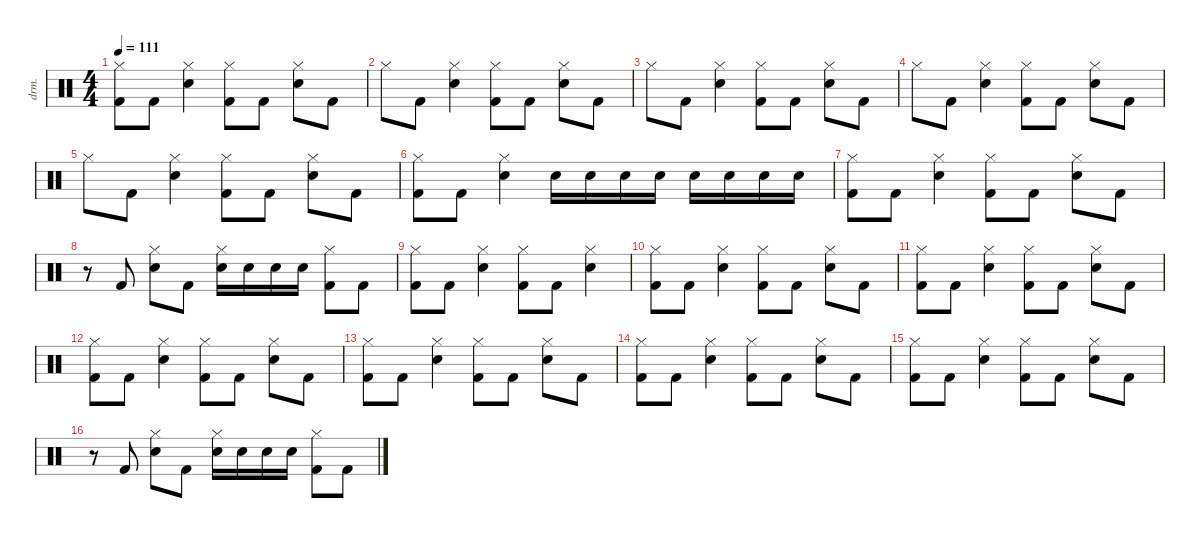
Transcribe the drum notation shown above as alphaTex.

\defaultSystemsLayout 4
\hideDynamics
\bracketExtendMode nobrackets
\otherSystemsTrackNameOrientation horizontal
\track ("Drums" "drm.") {instrument percussion}
\staff {score}
\articulation defaults
\ts (4 4)
\tempo 111
\clef neutral
\ks c
("Kick (hit) 2" "Hi-Hat (closed)").8{dy f} "Kick (hit) 2".8 ("Snare (hit) 2" "Hi-Hat (closed)").4 ("Kick (hit) 2" "Hi-Hat (closed)").8 "Kick (hit) 2".8 ("Snare (hit) 2" "Hi-Hat (closed)").8 "Kick (hit) 2".8 |
"Hi-Hat (closed)".8 "Kick (hit) 2".8 ("Snare (hit) 2" "Hi-Hat (closed)").4 ("Kick (hit) 2" "Hi-Hat (closed)").8 "Kick (hit) 2".8 ("Snare (hit) 2" "Hi-Hat (closed)").8 "Kick (hit) 2".8 |
"Hi-Hat (closed)".8 "Kick (hit) 2".8 ("Snare (hit) 2" "Hi-Hat (closed)").4 ("Kick (hit) 2" "Hi-Hat (closed)").8 "Kick (hit) 2".8 ("Snare (hit) 2" "Hi-Hat (closed)").8 "Kick (hit) 2".8 |
"Hi-Hat (closed)".8 "Kick (hit) 2".8 ("Snare (hit) 2" "Hi-Hat (closed)").4 ("Kick (hit) 2" "Hi-Hat (closed)").8 "Kick (hit) 2".8 ("Snare (hit) 2" "Hi-Hat (closed)").8 "Kick (hit) 2".8 |
"Hi-Hat (closed)".8 "Kick (hit) 2".8 ("Snare (hit) 2" "Hi-Hat (closed)").4 ("Kick (hit) 2" "Hi-Hat (closed)").8 "Kick (hit) 2".8 ("Snare (hit) 2" "Hi-Hat (closed)").8 "Kick (hit) 2".8 |
("Kick (hit) 2" "Hi-Hat (closed)").8 "Kick (hit) 2".8 ("Snare (hit) 2" "Hi-Hat (closed)").4 "Snare (hit) 2".16 "Snare (hit) 2".16 "Snare (hit) 2".16 "Snare (hit) 2".16 "Snare (hit) 2".16 "Snare (hit) 2".16 "Snare (hit) 2".16 "Snare (hit) 2".16 |
("Kick (hit) 2" "Hi-Hat (closed)").8 "Kick (hit) 2".8 ("Snare (hit) 2" "Hi-Hat (closed)").4 ("Kick (hit) 2" "Hi-Hat (closed)").8 "Kick (hit) 2".8 ("Snare (hit) 2" "Hi-Hat (closed)").8 "Kick (hit) 2".8 |
r.8 "Kick (hit) 2".8 ("Snare (hit) 2" "Hi-Hat (closed)").8 "Kick (hit) 2".8 ("Snare (hit) 2" "Hi-Hat (closed)").16 "Snare (hit) 2".16 "Snare (hit) 2".16 "Snare (hit) 2".16 ("Kick (hit) 2" "Hi-Hat (closed)").8 "Kick (hit) 2".8 |
("Kick (hit) 2" "Hi-Hat (closed)").8 "Kick (hit) 2".8 ("Snare (hit) 2" "Hi-Hat (closed)").4 ("Kick (hit) 2" "Hi-Hat (closed)").8 "Kick (hit) 2".8 ("Snare (hit) 2" "Hi-Hat (closed)").4 |
("Kick (hit) 2" "Hi-Hat (closed)").8 "Kick (hit) 2".8 ("Snare (hit) 2" "Hi-Hat (closed)").4 ("Kick (hit) 2" "Hi-Hat (closed)").8 "Kick (hit) 2".8 ("Snare (hit) 2" "Hi-Hat (closed)").8 "Kick (hit) 2".8 |
("Kick (hit) 2" "Hi-Hat (closed)").8 "Kick (hit) 2".8 ("Snare (hit) 2" "Hi-Hat (closed)").4 ("Kick (hit) 2" "Hi-Hat (closed)").8 "Kick (hit) 2".8 ("Snare (hit) 2" "Hi-Hat (closed)").8 "Kick (hit) 2".8 |
("Kick (hit) 2" "Hi-Hat (closed)").8 "Kick (hit) 2".8 ("Snare (hit) 2" "Hi-Hat (closed)").4 ("Kick (hit) 2" "Hi-Hat (closed)").8 "Kick (hit) 2".8 ("Snare (hit) 2" "Hi-Hat (closed)").8 "Kick (hit) 2".8 |
("Kick (hit) 2" "Hi-Hat (closed)").8 "Kick (hit) 2".8 ("Snare (hit) 2" "Hi-Hat (closed)").4 ("Kick (hit) 2" "Hi-Hat (closed)").8 "Kick (hit) 2".8 ("Snare (hit) 2" "Hi-Hat (closed)").8 "Kick (hit) 2".8 |
("Kick (hit) 2" "Hi-Hat (closed)").8 "Kick (hit) 2".8 ("Snare (hit) 2" "Hi-Hat (closed)").4 ("Kick (hit) 2" "Hi-Hat (closed)").8 "Kick (hit) 2".8 ("Snare (hit) 2" "Hi-Hat (closed)").8 "Kick (hit) 2".8 |
("Kick (hit) 2" "Hi-Hat (closed)").8 "Kick (hit) 2".8 ("Snare (hit) 2" "Hi-Hat (closed)").4 ("Kick (hit) 2" "Hi-Hat (closed)").8 "Kick (hit) 2".8 ("Snare (hit) 2" "Hi-Hat (closed)").8 "Kick (hit) 2".8 |
r.8 "Kick (hit) 2".8 ("Snare (hit) 2" "Hi-Hat (closed)").8 "Kick (hit) 2".8 ("Snare (hit) 2" "Hi-Hat (closed)").16 "Snare (hit) 2".16 "Snare (hit) 2".16 "Snare (hit) 2".16 ("Kick (hit) 2" "Hi-Hat (closed)").8 "Kick (hit) 2".8
